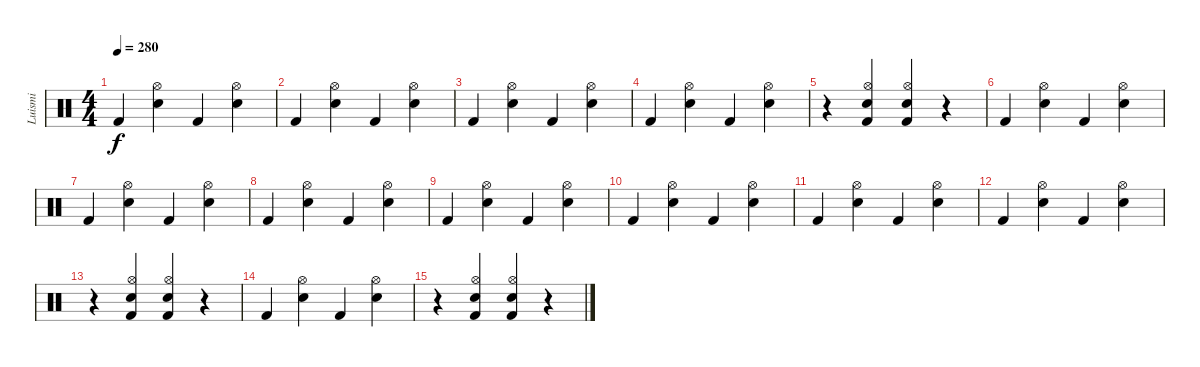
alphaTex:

\track ("Luismi" "Luismi") {instrument percussion}
\staff {score}
\articulation defaults
\ts (4 4)
\tempo 280
\clef neutral
\ks c "Kick (hit) 2".4{dy f}
("Hi-Hat (open)" "Snare (hit) 2").4 "Kick (hit) 2".4 ("Hi-Hat (open)" "Snare (hit) 2").4 |
"Kick (hit) 2".4 ("Hi-Hat (open)" "Snare (hit) 2").4 "Kick (hit) 2".4 ("Hi-Hat (open)" "Snare (hit) 2").4 |
"Kick (hit) 2".4 ("Hi-Hat (open)" "Snare (hit) 2").4 "Kick (hit) 2".4 ("Hi-Hat (open)" "Snare (hit) 2").4 |
"Kick (hit) 2".4 ("Hi-Hat (open)" "Snare (hit) 2").4 "Kick (hit) 2".4 ("Hi-Hat (open)" "Snare (hit) 2").4 |
r.4 ("Hi-Hat (open)" "Snare (hit) 2" "Kick (hit) 2").4 ("Hi-Hat (open)" "Snare (hit) 2" "Kick (hit) 2").4 r.4 |
"Kick (hit) 2".4 ("Hi-Hat (open)" "Snare (hit) 2").4 "Kick (hit) 2".4 ("Hi-Hat (open)" "Snare (hit) 2").4 |
"Kick (hit) 2".4 ("Hi-Hat (open)" "Snare (hit) 2").4 "Kick (hit) 2".4 ("Hi-Hat (open)" "Snare (hit) 2").4 |
"Kick (hit) 2".4 ("Hi-Hat (open)" "Snare (hit) 2").4 "Kick (hit) 2".4 ("Hi-Hat (open)" "Snare (hit) 2").4 |
"Kick (hit) 2".4 ("Hi-Hat (open)" "Snare (hit) 2").4 "Kick (hit) 2".4 ("Hi-Hat (open)" "Snare (hit) 2").4 |
"Kick (hit) 2".4 ("Hi-Hat (open)" "Snare (hit) 2").4 "Kick (hit) 2".4 ("Hi-Hat (open)" "Snare (hit) 2").4 |
"Kick (hit) 2".4 ("Hi-Hat (open)" "Snare (hit) 2").4 "Kick (hit) 2".4 ("Hi-Hat (open)" "Snare (hit) 2").4 |
"Kick (hit) 2".4 ("Hi-Hat (open)" "Snare (hit) 2").4 "Kick (hit) 2".4 ("Hi-Hat (open)" "Snare (hit) 2").4 |
r.4 ("Hi-Hat (open)" "Snare (hit) 2" "Kick (hit) 2").4 ("Hi-Hat (open)" "Snare (hit) 2" "Kick (hit) 2").4 r.4 |
"Kick (hit) 2".4 ("Hi-Hat (open)" "Snare (hit) 2").4 "Kick (hit) 2".4 ("Hi-Hat (open)" "Snare (hit) 2").4 |
r.4 ("Hi-Hat (open)" "Snare (hit) 2" "Kick (hit) 2").4 ("Hi-Hat (open)" "Snare (hit) 2" "Kick (hit) 2").4 r.4
